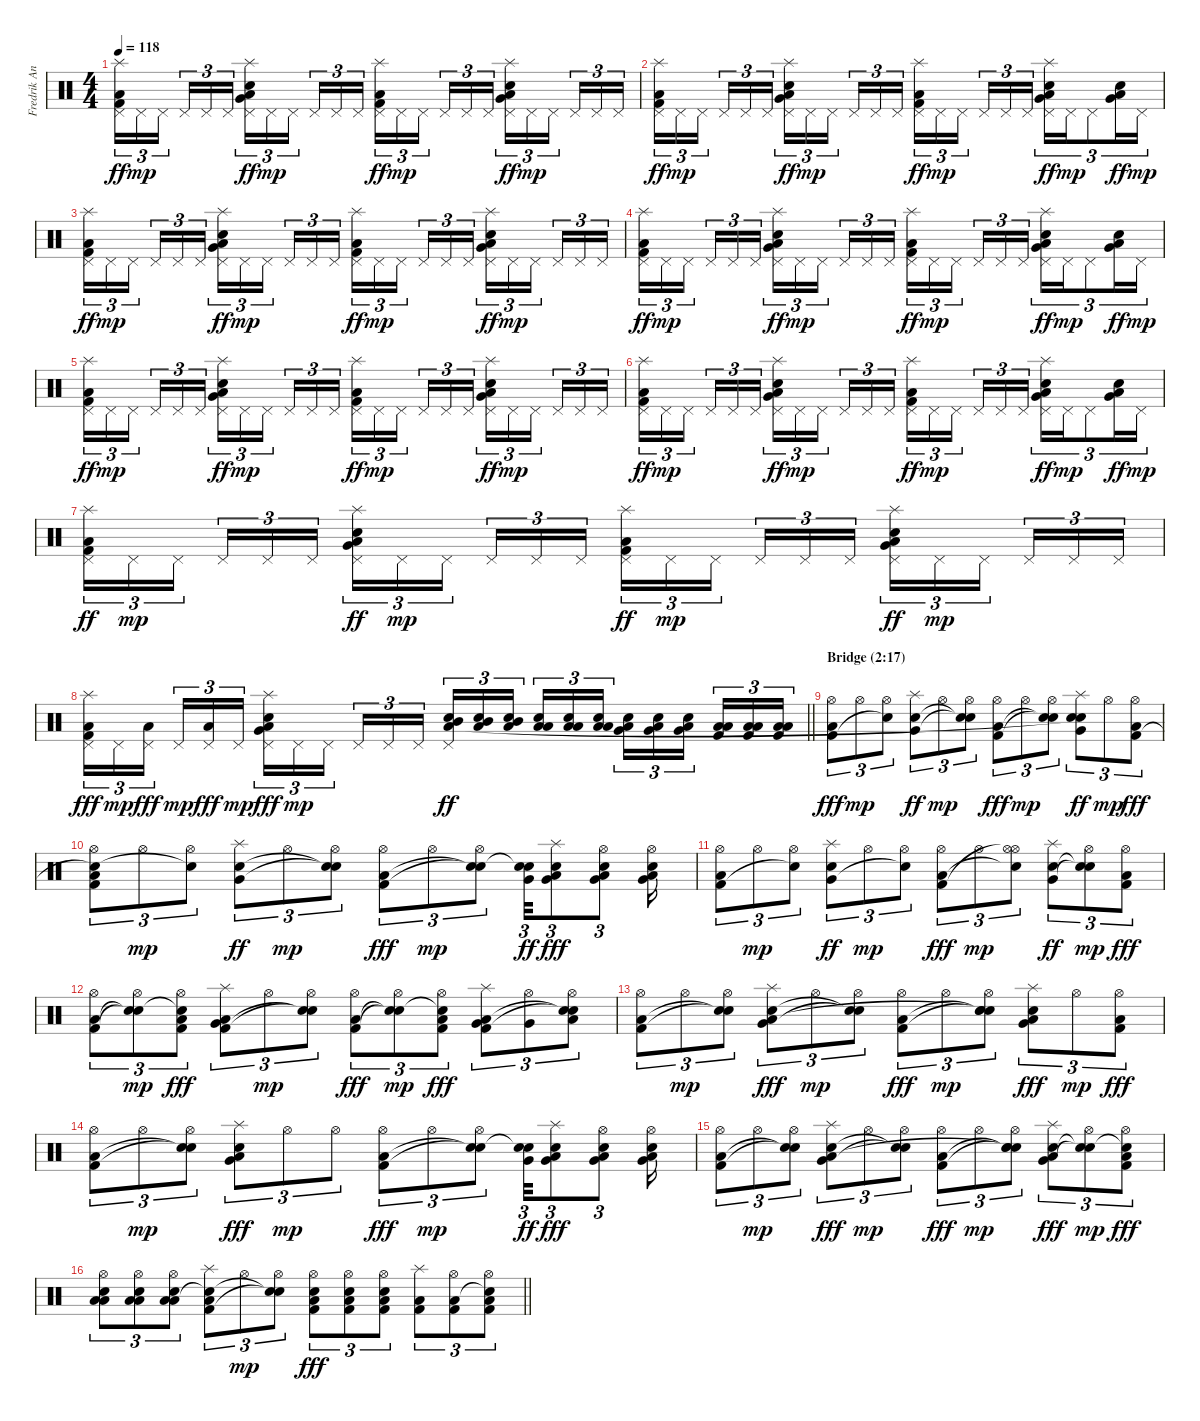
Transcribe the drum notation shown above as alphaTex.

\track ("Fredrik Andersson " "Fredrik An") {instrument percussion}
\staff {score}
\articulation defaults
\ts (4 4)
\tempo 118
\clef neutral
\ks c
("Splash (hit)" "Pedal Hi-Hat (hit)" "Kick (hit) 2" "Low Floor Tom (hit)").16{tu (3 2) dy ff} "Pedal Hi-Hat (hit)".16{tu (3 2) dy mp} "Pedal Hi-Hat (hit)".16{tu (3 2) beam splitsecondary} "Pedal Hi-Hat (hit)".16{tu (3 2)} "Pedal Hi-Hat (hit)".16{tu (3 2)} "Pedal Hi-Hat (hit)".16{tu (3 2)} ("Splash (hit)" "Pedal Hi-Hat (hit)" "Very Low Tom (hit)" "Snare (hit) 2" "Low Floor Tom (hit)").16{tu (3 2) dy ff} "Pedal Hi-Hat (hit)".16{tu (3 2) dy mp} "Pedal Hi-Hat (hit)".16{tu (3 2) beam splitsecondary} "Pedal Hi-Hat (hit)".16{tu (3 2)} "Pedal Hi-Hat (hit)".16{tu (3 2)} "Pedal Hi-Hat (hit)".16{tu (3 2)} ("Splash (hit)" "Pedal Hi-Hat (hit)" "Kick (hit) 2" "Low Floor Tom (hit)").16{tu (3 2) dy ff} "Pedal Hi-Hat (hit)".16{tu (3 2) dy mp} "Pedal Hi-Hat (hit)".16{tu (3 2) beam splitsecondary} "Pedal Hi-Hat (hit)".16{tu (3 2)} "Pedal Hi-Hat (hit)".16{tu (3 2)} "Pedal Hi-Hat (hit)".16{tu (3 2)} ("Splash (hit)" "Pedal Hi-Hat (hit)" "Very Low Tom (hit)" "Snare (hit) 2" "Low Floor Tom (hit)").16{tu (3 2) dy ff} "Pedal Hi-Hat (hit)".16{tu (3 2) dy mp} "Pedal Hi-Hat (hit)".16{tu (3 2) beam splitsecondary} "Pedal Hi-Hat (hit)".16{tu (3 2)} "Pedal Hi-Hat (hit)".16{tu (3 2)} "Pedal Hi-Hat (hit)".16{tu (3 2)} |
("Splash (hit)" "Pedal Hi-Hat (hit)" "Kick (hit) 2" "Low Floor Tom (hit)").16{tu (3 2) dy ff} "Pedal Hi-Hat (hit)".16{tu (3 2) dy mp} "Pedal Hi-Hat (hit)".16{tu (3 2) beam splitsecondary} "Pedal Hi-Hat (hit)".16{tu (3 2)} "Pedal Hi-Hat (hit)".16{tu (3 2)} "Pedal Hi-Hat (hit)".16{tu (3 2)} ("Splash (hit)" "Pedal Hi-Hat (hit)" "Very Low Tom (hit)" "Snare (hit) 2" "Low Floor Tom (hit)").16{tu (3 2) dy ff} "Pedal Hi-Hat (hit)".16{tu (3 2) dy mp} "Pedal Hi-Hat (hit)".16{tu (3 2) beam splitsecondary} "Pedal Hi-Hat (hit)".16{tu (3 2)} "Pedal Hi-Hat (hit)".16{tu (3 2)} "Pedal Hi-Hat (hit)".16{tu (3 2)} ("Splash (hit)" "Pedal Hi-Hat (hit)" "Kick (hit) 2" "Low Floor Tom (hit)").16{tu (3 2) dy ff} "Pedal Hi-Hat (hit)".16{tu (3 2) dy mp} "Pedal Hi-Hat (hit)".16{tu (3 2) beam splitsecondary} "Pedal Hi-Hat (hit)".16{tu (3 2)} "Pedal Hi-Hat (hit)".16{tu (3 2)} "Pedal Hi-Hat (hit)".16{tu (3 2)} ("Splash (hit)" "Pedal Hi-Hat (hit)" "Very Low Tom (hit)" "Snare (hit) 2" "Low Floor Tom (hit)").16{tu (3 2) dy ff} "Pedal Hi-Hat (hit)".16{tu (3 2) dy mp} "Pedal Hi-Hat (hit)".8{tu (3 2)} ("Very Low Tom (hit)" "Snare (hit) 2" "Low Floor Tom (hit)").16{tu (3 2) dy ff} "Pedal Hi-Hat (hit)".16{tu (3 2) dy mp} |
("Splash (hit)" "Pedal Hi-Hat (hit)" "Kick (hit) 2" "Low Floor Tom (hit)").16{tu (3 2) dy ff} "Pedal Hi-Hat (hit)".16{tu (3 2) dy mp} "Pedal Hi-Hat (hit)".16{tu (3 2) beam splitsecondary} "Pedal Hi-Hat (hit)".16{tu (3 2)} "Pedal Hi-Hat (hit)".16{tu (3 2)} "Pedal Hi-Hat (hit)".16{tu (3 2)} ("Splash (hit)" "Pedal Hi-Hat (hit)" "Very Low Tom (hit)" "Snare (hit) 2" "Low Floor Tom (hit)").16{tu (3 2) dy ff} "Pedal Hi-Hat (hit)".16{tu (3 2) dy mp} "Pedal Hi-Hat (hit)".16{tu (3 2) beam splitsecondary} "Pedal Hi-Hat (hit)".16{tu (3 2)} "Pedal Hi-Hat (hit)".16{tu (3 2)} "Pedal Hi-Hat (hit)".16{tu (3 2)} ("Splash (hit)" "Pedal Hi-Hat (hit)" "Kick (hit) 2" "Low Floor Tom (hit)").16{tu (3 2) dy ff} "Pedal Hi-Hat (hit)".16{tu (3 2) dy mp} "Pedal Hi-Hat (hit)".16{tu (3 2) beam splitsecondary} "Pedal Hi-Hat (hit)".16{tu (3 2)} "Pedal Hi-Hat (hit)".16{tu (3 2)} "Pedal Hi-Hat (hit)".16{tu (3 2)} ("Splash (hit)" "Pedal Hi-Hat (hit)" "Very Low Tom (hit)" "Snare (hit) 2" "Low Floor Tom (hit)").16{tu (3 2) dy ff} "Pedal Hi-Hat (hit)".16{tu (3 2) dy mp} "Pedal Hi-Hat (hit)".16{tu (3 2) beam splitsecondary} "Pedal Hi-Hat (hit)".16{tu (3 2)} "Pedal Hi-Hat (hit)".16{tu (3 2)} "Pedal Hi-Hat (hit)".16{tu (3 2)} |
("Splash (hit)" "Pedal Hi-Hat (hit)" "Kick (hit) 2" "Low Floor Tom (hit)").16{tu (3 2) dy ff} "Pedal Hi-Hat (hit)".16{tu (3 2) dy mp} "Pedal Hi-Hat (hit)".16{tu (3 2) beam splitsecondary} "Pedal Hi-Hat (hit)".16{tu (3 2)} "Pedal Hi-Hat (hit)".16{tu (3 2)} "Pedal Hi-Hat (hit)".16{tu (3 2)} ("Splash (hit)" "Pedal Hi-Hat (hit)" "Very Low Tom (hit)" "Snare (hit) 2" "Low Floor Tom (hit)").16{tu (3 2) dy ff} "Pedal Hi-Hat (hit)".16{tu (3 2) dy mp} "Pedal Hi-Hat (hit)".16{tu (3 2) beam splitsecondary} "Pedal Hi-Hat (hit)".16{tu (3 2)} "Pedal Hi-Hat (hit)".16{tu (3 2)} "Pedal Hi-Hat (hit)".16{tu (3 2)} ("Splash (hit)" "Pedal Hi-Hat (hit)" "Kick (hit) 2" "Low Floor Tom (hit)").16{tu (3 2) dy ff} "Pedal Hi-Hat (hit)".16{tu (3 2) dy mp} "Pedal Hi-Hat (hit)".16{tu (3 2) beam splitsecondary} "Pedal Hi-Hat (hit)".16{tu (3 2)} "Pedal Hi-Hat (hit)".16{tu (3 2)} "Pedal Hi-Hat (hit)".16{tu (3 2)} ("Splash (hit)" "Pedal Hi-Hat (hit)" "Very Low Tom (hit)" "Snare (hit) 2" "Low Floor Tom (hit)").16{tu (3 2) dy ff} "Pedal Hi-Hat (hit)".16{tu (3 2) dy mp} "Pedal Hi-Hat (hit)".8{tu (3 2)} ("Very Low Tom (hit)" "Snare (hit) 2" "Low Floor Tom (hit)").16{tu (3 2) dy ff} "Pedal Hi-Hat (hit)".16{tu (3 2) dy mp} |
("Splash (hit)" "Pedal Hi-Hat (hit)" "Kick (hit) 2" "Low Floor Tom (hit)").16{tu (3 2) dy ff} "Pedal Hi-Hat (hit)".16{tu (3 2) dy mp} "Pedal Hi-Hat (hit)".16{tu (3 2) beam splitsecondary} "Pedal Hi-Hat (hit)".16{tu (3 2)} "Pedal Hi-Hat (hit)".16{tu (3 2)} "Pedal Hi-Hat (hit)".16{tu (3 2)} ("Splash (hit)" "Pedal Hi-Hat (hit)" "Very Low Tom (hit)" "Snare (hit) 2" "Low Floor Tom (hit)").16{tu (3 2) dy ff} "Pedal Hi-Hat (hit)".16{tu (3 2) dy mp} "Pedal Hi-Hat (hit)".16{tu (3 2) beam splitsecondary} "Pedal Hi-Hat (hit)".16{tu (3 2)} "Pedal Hi-Hat (hit)".16{tu (3 2)} "Pedal Hi-Hat (hit)".16{tu (3 2)} ("Splash (hit)" "Pedal Hi-Hat (hit)" "Kick (hit) 2" "Low Floor Tom (hit)").16{tu (3 2) dy ff} "Pedal Hi-Hat (hit)".16{tu (3 2) dy mp} "Pedal Hi-Hat (hit)".16{tu (3 2) beam splitsecondary} "Pedal Hi-Hat (hit)".16{tu (3 2)} "Pedal Hi-Hat (hit)".16{tu (3 2)} "Pedal Hi-Hat (hit)".16{tu (3 2)} ("Splash (hit)" "Pedal Hi-Hat (hit)" "Very Low Tom (hit)" "Snare (hit) 2" "Low Floor Tom (hit)").16{tu (3 2) dy ff} "Pedal Hi-Hat (hit)".16{tu (3 2) dy mp} "Pedal Hi-Hat (hit)".16{tu (3 2) beam splitsecondary} "Pedal Hi-Hat (hit)".16{tu (3 2)} "Pedal Hi-Hat (hit)".16{tu (3 2)} "Pedal Hi-Hat (hit)".16{tu (3 2)} |
("Splash (hit)" "Pedal Hi-Hat (hit)" "Kick (hit) 2" "Low Floor Tom (hit)").16{tu (3 2) dy ff} "Pedal Hi-Hat (hit)".16{tu (3 2) dy mp} "Pedal Hi-Hat (hit)".16{tu (3 2) beam splitsecondary} "Pedal Hi-Hat (hit)".16{tu (3 2)} "Pedal Hi-Hat (hit)".16{tu (3 2)} "Pedal Hi-Hat (hit)".16{tu (3 2)} ("Splash (hit)" "Pedal Hi-Hat (hit)" "Very Low Tom (hit)" "Snare (hit) 2" "Low Floor Tom (hit)").16{tu (3 2) dy ff} "Pedal Hi-Hat (hit)".16{tu (3 2) dy mp} "Pedal Hi-Hat (hit)".16{tu (3 2) beam splitsecondary} "Pedal Hi-Hat (hit)".16{tu (3 2)} "Pedal Hi-Hat (hit)".16{tu (3 2)} "Pedal Hi-Hat (hit)".16{tu (3 2)} ("Splash (hit)" "Pedal Hi-Hat (hit)" "Kick (hit) 2" "Low Floor Tom (hit)").16{tu (3 2) dy ff} "Pedal Hi-Hat (hit)".16{tu (3 2) dy mp} "Pedal Hi-Hat (hit)".16{tu (3 2) beam splitsecondary} "Pedal Hi-Hat (hit)".16{tu (3 2)} "Pedal Hi-Hat (hit)".16{tu (3 2)} "Pedal Hi-Hat (hit)".16{tu (3 2)} ("Splash (hit)" "Pedal Hi-Hat (hit)" "Very Low Tom (hit)" "Snare (hit) 2" "Low Floor Tom (hit)").16{tu (3 2) dy ff} "Pedal Hi-Hat (hit)".16{tu (3 2) dy mp} "Pedal Hi-Hat (hit)".8{tu (3 2)} ("Very Low Tom (hit)" "Snare (hit) 2" "Low Floor Tom (hit)").16{tu (3 2) dy ff} "Pedal Hi-Hat (hit)".16{tu (3 2) dy mp} |
("Splash (hit)" "Pedal Hi-Hat (hit)" "Kick (hit) 2" "Low Floor Tom (hit)").16{tu (3 2) dy ff} "Pedal Hi-Hat (hit)".16{tu (3 2) dy mp} "Pedal Hi-Hat (hit)".16{tu (3 2) beam splitsecondary} "Pedal Hi-Hat (hit)".16{tu (3 2)} "Pedal Hi-Hat (hit)".16{tu (3 2)} "Pedal Hi-Hat (hit)".16{tu (3 2)} ("Splash (hit)" "Pedal Hi-Hat (hit)" "Very Low Tom (hit)" "Snare (hit) 2" "Low Floor Tom (hit)").16{tu (3 2) dy ff} "Pedal Hi-Hat (hit)".16{tu (3 2) dy mp} "Pedal Hi-Hat (hit)".16{tu (3 2) beam splitsecondary} "Pedal Hi-Hat (hit)".16{tu (3 2)} "Pedal Hi-Hat (hit)".16{tu (3 2)} "Pedal Hi-Hat (hit)".16{tu (3 2)} ("Splash (hit)" "Pedal Hi-Hat (hit)" "Kick (hit) 2" "Low Floor Tom (hit)").16{tu (3 2) dy ff} "Pedal Hi-Hat (hit)".16{tu (3 2) dy mp} "Pedal Hi-Hat (hit)".16{tu (3 2) beam splitsecondary} "Pedal Hi-Hat (hit)".16{tu (3 2)} "Pedal Hi-Hat (hit)".16{tu (3 2)} "Pedal Hi-Hat (hit)".16{tu (3 2)} ("Splash (hit)" "Pedal Hi-Hat (hit)" "Very Low Tom (hit)" "Snare (hit) 2" "Low Floor Tom (hit)").16{tu (3 2) dy ff} "Pedal Hi-Hat (hit)".16{tu (3 2) dy mp} "Pedal Hi-Hat (hit)".16{tu (3 2) beam splitsecondary} "Pedal Hi-Hat (hit)".16{tu (3 2)} "Pedal Hi-Hat (hit)".16{tu (3 2)} "Pedal Hi-Hat (hit)".16{tu (3 2)} |
\barLineRight lightlight
("Splash (hit)" "Pedal Hi-Hat (hit)" "Kick (hit) 2" "Low Floor Tom (hit)").16{tu (3 2) dy fff} "Pedal Hi-Hat (hit)".16{tu (3 2) dy mp} ("Pedal Hi-Hat (hit)" "Low Floor Tom (hit)").16{tu (3 2) dy fff beam splitsecondary} "Pedal Hi-Hat (hit)".16{tu (3 2) dy mp} ("Pedal Hi-Hat (hit)" "Low Floor Tom (hit)").16{tu (3 2) dy fff} "Pedal Hi-Hat (hit)".16{tu (3 2) dy mp} ("Splash (hit)" "Pedal Hi-Hat (hit)" "Very Low Tom (hit)" "Snare (hit) 2" "Low Floor Tom (hit)").16{tu (3 2) dy fff} "Pedal Hi-Hat (hit)".16{tu (3 2) dy mp} "Pedal Hi-Hat (hit)".16{tu (3 2) beam splitsecondary} "Pedal Hi-Hat (hit)".16{tu (3 2)} "Pedal Hi-Hat (hit)".16{tu (3 2)} "Pedal Hi-Hat (hit)".16{tu (3 2)} ("Pedal Hi-Hat (hit)" "Mid Tom (hit)" "Snare (hit) 2" "Low Floor Tom (hit)").16{tu (3 2) dy ff} ("Mid Tom (hit)" "Snare (hit) 2" "Low Floor Tom (hit)").16{tu (3 2)} ("Mid Tom (hit)" "Snare (hit) 2" "Low Floor Tom (hit)").16{tu (3 2) beam splitsecondary} ("Low Tom (hit)" "Snare (hit) 2" "Low Floor Tom (hit)").16{tu (3 2)} ("Low Tom (hit)" "Snare (hit) 2" "Low Floor Tom (hit)").16{tu (3 2)} ("Low Tom (hit)" "Snare (hit) 2" "Low Floor Tom (hit)").16{tu (3 2)} ("Very Low Tom (hit)" "Snare (hit) 2" "Low Floor Tom (hit)").16{tu (3 2)} ("Very Low Tom (hit)" "Snare (hit) 2" "Low Floor Tom (hit)").16{tu (3 2)} ("Very Low Tom (hit)" "Snare (hit) 2" "Low Floor Tom (hit)").16{tu (3 2) beam splitsecondary} ("Low Tom (hit)" "Kick (hit) 2" "Low Floor Tom (hit)").16{tu (3 2)} ("Low Tom (hit)" "Kick (hit) 2" "Low Floor Tom (hit)").16{tu (3 2)} ("Low Tom (hit)" "Kick (hit) 2" "Low Floor Tom (hit)").16{tu (3 2)} |
\section ("" "Bridge (2:17)")
("Hi-Hat (open)" "Kick (hit) 2" "Low Floor Tom (hit)").8{tu (3 2) dy fff} "Hi-Hat (open)".8{tu (3 2) dy mp} ("Hi-Hat (open)" "Snare (hit)"{t}).8{tu (3 2)} ("Splash (hit)" "Very Low Tom (hit)" "Snare (hit) 2").8{tu (3 2) dy ff} "Hi-Hat (open)".8{tu (3 2) dy mp} ("Hi-Hat (open)" "Snare (hit)"{t} "Snare (hit)"{t}).8{tu (3 2)} ("Hi-Hat (open)" "Kick (hit) 2" "Low Floor Tom (hit)").8{tu (3 2) dy fff} "Hi-Hat (open)".8{tu (3 2) dy mp} ("Hi-Hat (open)" "Snare (hit)"{t} "Snare (hit)"{t}).8{tu (3 2)} ("Splash (hit)" "Very Low Tom (hit)" "Snare (hit) 2" "Snare (hit)"{t}).8{tu (3 2) dy ff} "Hi-Hat (open)".8{tu (3 2) dy mp} ("Hi-Hat (open)" "Kick (hit) 2" "Low Floor Tom (hit)").8{tu (3 2) dy fff} |
("Hi-Hat (open)" "Snare (hit)"{t} "Kick (hit) 2" "Low Floor Tom (hit)").8{tu (3 2)} "Hi-Hat (open)".8{tu (3 2) dy mp} ("Hi-Hat (open)" "Snare (hit)"{t}).8{tu (3 2)} ("Splash (hit)" "Very Low Tom (hit)" "Snare (hit) 2").8{tu (3 2) dy ff} "Hi-Hat (open)".8{tu (3 2) dy mp} ("Hi-Hat (open)" "Snare (hit)"{t} "Snare (hit)"{t}).8{tu (3 2)} ("Hi-Hat (open)" "Kick (hit) 2" "Low Floor Tom (hit)").8{tu (3 2) dy fff} "Hi-Hat (open)".8{tu (3 2) dy mp} ("Hi-Hat (open)" "Snare (hit)"{t} "Snare (hit)"{t}).8{tu (3 2)} ("Very Low Tom (hit)" "Snare (hit) 2" "Snare (hit)"{t}).32{tu (3 2) dy ff} ("Splash (hit)" "Very Low Tom (hit)" "Snare (hit) 2" "Low Floor Tom (hit)").8{tu (3 2) dy fff} ("Hi-Hat (open)" "Very Low Tom (hit)" "Snare (hit) 2" "Low Floor Tom (hit)").8{tu (3 2)} ("Hi-Hat (open)" "Very Low Tom (hit)" "Snare (hit) 2" "Low Floor Tom (hit)").16 |
("Hi-Hat (open)" "Kick (hit) 2" "Low Floor Tom (hit)").8{tu (3 2)} "Hi-Hat (open)".8{tu (3 2) dy mp} ("Hi-Hat (open)" "Snare (hit)"{t}).8{tu (3 2)} ("Splash (hit)" "Very Low Tom (hit)" "Snare (hit) 2").8{tu (3 2) dy ff} "Hi-Hat (open)".8{tu (3 2) dy mp} ("Hi-Hat (open)" "Snare (hit)"{t}).8{tu (3 2)} ("Hi-Hat (open)" "Kick (hit) 2" "Low Floor Tom (hit)").8{tu (3 2) dy fff} "Hi-Hat (open)".8{tu (3 2) dy mp} ("Hi-Hat (open)" "Hi-Hat (open)"{t} "Snare (hit)"{t}).8{tu (3 2)} ("Splash (hit)" "Very Low Tom (hit)" "Snare (hit) 2").8{tu (3 2) dy ff} ("Hi-Hat (open)" "Snare (hit)"{t} "Snare (hit)"{t}).8{tu (3 2) dy mp} ("Hi-Hat (open)" "Kick (hit) 2" "Low Floor Tom (hit)").8{tu (3 2) dy fff} |
("Hi-Hat (open)" "Kick (hit) 2" "Low Floor Tom (hit)").8{tu (3 2)} ("Hi-Hat (open)" "Snare (hit)"{t} "Snare (hit)"{t}).8{tu (3 2) dy mp} ("Hi-Hat (open)" "Snare (hit)"{t} "Kick (hit) 2" "Low Floor Tom (hit)").8{tu (3 2) dy fff} ("Splash (hit)" "Very Low Tom (hit)" "Kick (hit) 2" "Low Floor Tom (hit)").8{tu (3 2)} "Hi-Hat (open)".8{tu (3 2) dy mp} ("Hi-Hat (open)" "Snare (hit)"{t} "Snare (hit)"{t}).8{tu (3 2)} ("Hi-Hat (open)" "Kick (hit) 2" "Low Floor Tom (hit)").8{tu (3 2) dy fff} ("Hi-Hat (open)" "Snare (hit)"{t} "Snare (hit)"{t}).8{tu (3 2) dy mp} ("Hi-Hat (open)" "Snare (hit)"{t} "Kick (hit) 2" "Low Floor Tom (hit)").8{tu (3 2) dy fff} ("Splash (hit)" "Very Low Tom (hit)" "Kick (hit) 2" "Low Floor Tom (hit)").8{tu (3 2)} ("Hi-Hat (open)" "Very Low Tom (hit)").8{tu (3 2)} ("Hi-Hat (open)" "Low Floor Tom (hit)" "Snare (hit)"{t} "Snare (hit)"{t}).8{tu (3 2)} |
("Hi-Hat (open)" "Kick (hit) 2" "Low Floor Tom (hit)").8{tu (3 2)} "Hi-Hat (open)".8{tu (3 2) dy mp} ("Hi-Hat (open)" "Snare (hit)"{t} "Snare (hit)"{t}).8{tu (3 2)} ("Splash (hit)" "Very Low Tom (hit)" "Snare (hit) 2" "Low Floor Tom (hit)").8{tu (3 2) dy fff} "Hi-Hat (open)".8{tu (3 2) dy mp} ("Hi-Hat (open)" "Snare (hit)"{t} "Snare (hit)"{t}).8{tu (3 2)} ("Hi-Hat (open)" "Kick (hit) 2" "Low Floor Tom (hit)").8{tu (3 2) dy fff} "Hi-Hat (open)".8{tu (3 2) dy mp} ("Hi-Hat (open)" "Snare (hit)"{t} "Snare (hit)"{t} "Snare (hit)"{t}).8{tu (3 2)} ("Splash (hit)" "Very Low Tom (hit)" "Snare (hit) 2" "Low Floor Tom (hit)").8{tu (3 2) dy fff} "Hi-Hat (open)".8{tu (3 2) dy mp} ("Hi-Hat (open)" "Kick (hit) 2" "Low Floor Tom (hit)").8{tu (3 2) dy fff} |
("Hi-Hat (open)" "Kick (hit) 2" "Low Floor Tom (hit)").8{tu (3 2)} "Hi-Hat (open)".8{tu (3 2) dy mp} ("Hi-Hat (open)" "Snare (hit)"{t} "Snare (hit)"{t}).8{tu (3 2)} ("Splash (hit)" "Very Low Tom (hit)" "Snare (hit) 2" "Low Floor Tom (hit)").8{tu (3 2) dy fff} "Hi-Hat (open)".8{tu (3 2) dy mp} "Hi-Hat (open)".8{tu (3 2)} ("Hi-Hat (open)" "Kick (hit) 2" "Low Floor Tom (hit)").8{tu (3 2) dy fff} "Hi-Hat (open)".8{tu (3 2) dy mp} ("Hi-Hat (open)" "Snare (hit)"{t} "Snare (hit)"{t}).8{tu (3 2)} ("Very Low Tom (hit)" "Snare (hit) 2" "Snare (hit)"{t}).32{tu (3 2) dy ff} ("Splash (hit)" "Very Low Tom (hit)" "Snare (hit) 2" "Low Floor Tom (hit)").8{tu (3 2) dy fff} ("Hi-Hat (open)" "Very Low Tom (hit)" "Snare (hit) 2" "Low Floor Tom (hit)").8{tu (3 2)} ("Hi-Hat (open)" "Very Low Tom (hit)" "Snare (hit) 2" "Low Floor Tom (hit)").16 |
("Hi-Hat (open)" "Kick (hit) 2" "Low Floor Tom (hit)").8{tu (3 2)} "Hi-Hat (open)".8{tu (3 2) dy mp} ("Hi-Hat (open)" "Snare (hit)"{t} "Snare (hit)"{t}).8{tu (3 2)} ("Splash (hit)" "Very Low Tom (hit)" "Snare (hit) 2" "Low Floor Tom (hit)").8{tu (3 2) dy fff} "Hi-Hat (open)".8{tu (3 2) dy mp} ("Hi-Hat (open)" "Snare (hit)"{t} "Snare (hit)"{t}).8{tu (3 2)} ("Hi-Hat (open)" "Kick (hit) 2" "Low Floor Tom (hit)").8{tu (3 2) dy fff} "Hi-Hat (open)".8{tu (3 2) dy mp} ("Hi-Hat (open)" "Snare (hit)"{t} "Snare (hit)"{t} "Snare (hit)"{t}).8{tu (3 2)} ("Splash (hit)" "Very Low Tom (hit)" "Snare (hit) 2" "Low Floor Tom (hit)").8{tu (3 2) dy fff} ("Hi-Hat (open)" "Snare (hit)"{t} "Snare (hit)"{t}).8{tu (3 2) dy mp} ("Hi-Hat (open)" "Snare (hit)"{t} "Kick (hit) 2" "Low Floor Tom (hit)").8{tu (3 2) dy fff} |
\barLineRight lightlight
("Hi-Hat (open)" "Low Tom (hit)" "Snare (hit) 2" "Low Floor Tom (hit)").8{tu (3 2)} ("Hi-Hat (open)" "Low Tom (hit)" "Snare (hit) 2" "Low Floor Tom (hit)").8{tu (3 2)} ("Hi-Hat (open)" "Low Tom (hit)" "Snare (hit) 2" "Low Floor Tom (hit)").8{tu (3 2)} ("Splash (hit)" "Snare (hit)"{t} "Kick (hit) 2" "Low Floor Tom (hit)").8{tu (3 2)} "Hi-Hat (open)".8{tu (3 2) dy mp} ("Hi-Hat (open)" "Snare (hit)"{t} "Snare (hit)"{t}).8{tu (3 2)} ("Hi-Hat (open)" "Snare (hit) 2" "Kick (hit) 2" "Low Floor Tom (hit)").8{tu (3 2) dy fff} ("Hi-Hat (open)" "Snare (hit) 2" "Kick (hit) 2" "Low Floor Tom (hit)").8{tu (3 2)} ("Hi-Hat (open)" "Snare (hit) 2" "Kick (hit) 2" "Low Floor Tom (hit)").8{tu (3 2)} ("Splash (hit)" "Kick (hit) 2" "Low Floor Tom (hit)").8{tu (3 2)} ("Hi-Hat (open)" "Kick (hit) 2" "Low Floor Tom (hit)").8{tu (3 2)} ("Hi-Hat (open)" "Kick (hit) 2" "Snare (hit)"{t} "Low Floor Tom (hit)").8{tu (3 2)}
